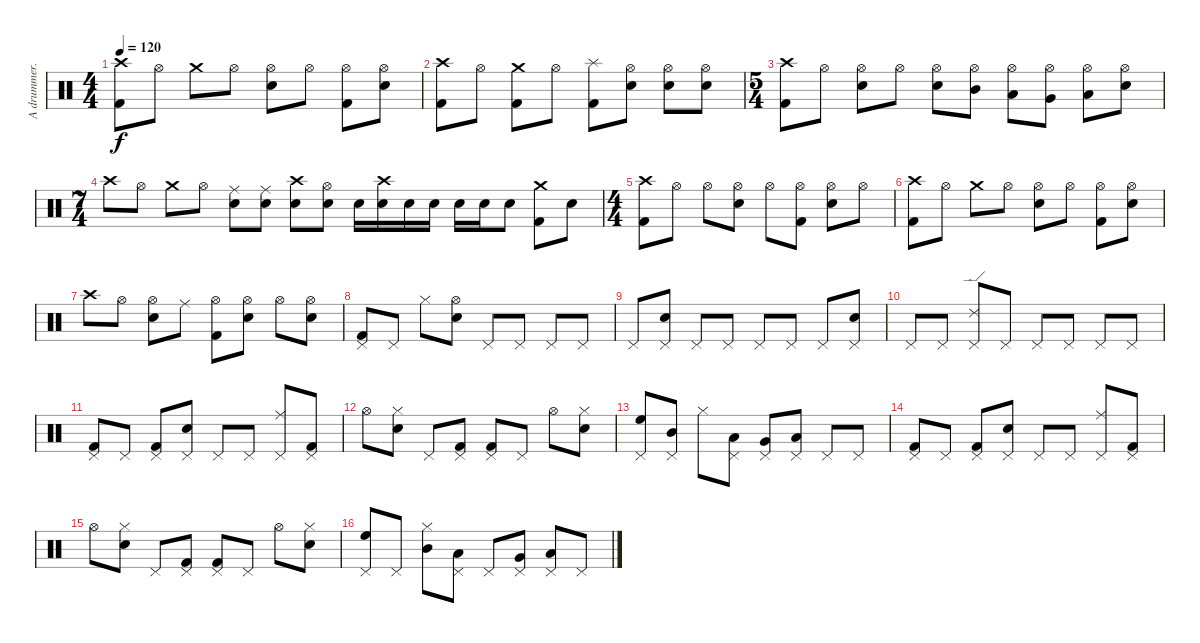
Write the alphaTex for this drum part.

\track ("A drummer...." "A drummer.") {instrument percussion}
\staff {score}
\articulation defaults
\ts (4 4)
\tempo 120
\clef neutral
\ks c
("Crash high (hit)" "Kick (hit) 2").8{dy f} "Hi-Hat (open)".8 "Crash medium (hit)".8 "Hi-Hat (open)".8 ("Hi-Hat (open)" "Snare (hit) 2").8 "Hi-Hat (open)".8 ("Hi-Hat (open)" "Kick (hit) 2").8 ("Hi-Hat (open)" "Snare (hit) 2").8 |
("Crash high (hit)" "Kick (hit) 2").8 "Hi-Hat (open)".8 ("Crash medium (hit)" "Kick (hit) 2").8 "Hi-Hat (open)".8 ("Splash (hit)" "Kick (hit) 2").8 ("Hi-Hat (open)" "Snare (hit) 2").8 ("Hi-Hat (open)" "Snare (hit) 2").8 ("Hi-Hat (open)" "Snare (hit) 2").8 |
\ts (5 4)
("Crash high (hit)" "Kick (hit) 2").8 "Hi-Hat (open)".8 ("Hi-Hat (open)" "Snare (hit) 2").8 "Hi-Hat (open)".8 ("Hi-Hat (open)" "Snare (hit) 2").8 ("Hi-Hat (open)" "Mid Tom (hit)").8 ("Hi-Hat (open)" "Low Tom (hit)").8 ("Hi-Hat (open)" "Very Low Tom (hit)").8 ("Hi-Hat (open)" "Low Floor Tom (hit)").8 ("Hi-Hat (open)" "Snare (hit) 2").8 |
\ts (7 4)
"Crash high (hit)".8 "Hi-Hat (open)".8 "Crash medium (hit)".8 "Hi-Hat (open)".8 ("Ride (middle)" "Snare (hit) 2").8 ("Ride (middle)" "Snare (hit) 2").8 ("Crash high (hit)" "Snare (hit) 2").8 ("Hi-Hat (open)" "Snare (hit) 2").8 "Snare (hit) 2".16 ("Crash high (hit)" "Snare (hit) 2").16 "Snare (hit) 2".16 "Snare (hit) 2".16 "Snare (hit) 2".16 "Snare (hit) 2".16 "Snare (hit) 2".8 ("Crash medium (hit)" "Kick (hit) 2").8 "Snare (hit) 2".8 |
\ts (4 4)
("Crash high (hit)" "Kick (hit) 2").8 "Hi-Hat (open)".8 "Hi-Hat (open)".8 ("Hi-Hat (open)" "Snare (hit) 2").8 "Hi-Hat (open)".8 ("Hi-Hat (open)" "Kick (hit) 2").8 ("Hi-Hat (open)" "Snare (hit) 2").8 "Hi-Hat (open)".8 |
("Crash high (hit)" "Kick (hit) 2").8 "Hi-Hat (open)".8 "Crash medium (hit)".8 "Hi-Hat (open)".8 ("Hi-Hat (open)" "Snare (hit) 2").8 "Hi-Hat (open)".8 ("Hi-Hat (open)" "Kick (hit) 2").8 ("Hi-Hat (open)" "Snare (hit) 2").8 |
"Crash high (hit)".8 "Hi-Hat (open)".8 ("Hi-Hat (open)" "Snare (hit) 2").8 "Ride (middle)".8 ("Hi-Hat (open)" "Kick (hit) 2").8 ("Hi-Hat (open)" "Snare (hit) 2").8 "Hi-Hat (open)".8 ("Hi-Hat (open)" "Snare (hit) 2").8 |
("Pedal Hi-Hat (hit)" "Kick (hit) 2").8 "Pedal Hi-Hat (hit)".8 "Hi-Hat (closed)".8 ("Hi-Hat (open)" "Snare (hit) 2").8 "Pedal Hi-Hat (hit)".8 "Pedal Hi-Hat (hit)".8 "Pedal Hi-Hat (hit)".8 "Pedal Hi-Hat (hit)".8 |
"Pedal Hi-Hat (hit)".8 ("Pedal Hi-Hat (hit)" "Snare (hit) 2").8 "Pedal Hi-Hat (hit)".8 "Pedal Hi-Hat (hit)".8 "Pedal Hi-Hat (hit)".8 "Pedal Hi-Hat (hit)".8 "Pedal Hi-Hat (hit)".8 ("Pedal Hi-Hat (hit)" "Snare (hit) 2").8 |
"Pedal Hi-Hat (hit)".8 "Pedal Hi-Hat (hit)".8 ("Ride (edge) 2" "Pedal Hi-Hat (hit)").8 "Pedal Hi-Hat (hit)".8 "Pedal Hi-Hat (hit)".8 "Pedal Hi-Hat (hit)".8 "Pedal Hi-Hat (hit)".8 "Pedal Hi-Hat (hit)".8 |
("Pedal Hi-Hat (hit)" "Kick (hit) 2").8 "Pedal Hi-Hat (hit)".8 ("Pedal Hi-Hat (hit)" "Kick (hit) 2").8 ("Pedal Hi-Hat (hit)" "Snare (hit) 2").8 "Pedal Hi-Hat (hit)".8 "Pedal Hi-Hat (hit)".8 ("Pedal Hi-Hat (hit)" "Ride (middle)").8 ("Pedal Hi-Hat (hit)" "Kick (hit) 2").8 |
"Hi-Hat (open)".8 ("Hi-Hat (closed)" "Snare (hit) 2").8 "Pedal Hi-Hat (hit)".8 ("Pedal Hi-Hat (hit)" "Kick (hit) 2").8 ("Pedal Hi-Hat (hit)" "Kick (hit) 2").8 "Pedal Hi-Hat (hit)".8 "Hi-Hat (open)".8 ("Hi-Hat (closed)" "Snare (hit) 2").8 |
("Pedal Hi-Hat (hit)" "High Floor Tom (hit)").8 ("Pedal Hi-Hat (hit)" "Mid Tom (hit)").8 "Hi-Hat (closed)".8 ("Pedal Hi-Hat (hit)" "Low Tom (hit)").8 ("Pedal Hi-Hat (hit)" "Very Low Tom (hit)").8 ("Pedal Hi-Hat (hit)" "Low Floor Tom (hit)").8 "Pedal Hi-Hat (hit)".8 "Pedal Hi-Hat (hit)".8 |
("Pedal Hi-Hat (hit)" "Kick (hit) 2").8 "Pedal Hi-Hat (hit)".8 ("Pedal Hi-Hat (hit)" "Kick (hit) 2").8 ("Pedal Hi-Hat (hit)" "Snare (hit) 2").8 "Pedal Hi-Hat (hit)".8 "Pedal Hi-Hat (hit)".8 ("Pedal Hi-Hat (hit)" "Ride (middle)").8 ("Pedal Hi-Hat (hit)" "Kick (hit) 2").8 |
"Hi-Hat (open)".8 ("Hi-Hat (closed)" "Snare (hit) 2").8 "Pedal Hi-Hat (hit)".8 ("Pedal Hi-Hat (hit)" "Kick (hit) 2").8 ("Pedal Hi-Hat (hit)" "Kick (hit) 2").8 "Pedal Hi-Hat (hit)".8 "Hi-Hat (open)".8 ("Hi-Hat (closed)" "Snare (hit) 2").8 |
("Pedal Hi-Hat (hit)" "High Floor Tom (hit)").8 "Pedal Hi-Hat (hit)".8 ("Hi-Hat (closed)" "Mid Tom (hit)").8 ("Pedal Hi-Hat (hit)" "Low Tom (hit)").8 "Pedal Hi-Hat (hit)".8 ("Pedal Hi-Hat (hit)" "Very Low Tom (hit)").8 ("Pedal Hi-Hat (hit)" "Low Floor Tom (hit)").8 "Pedal Hi-Hat (hit)".8
